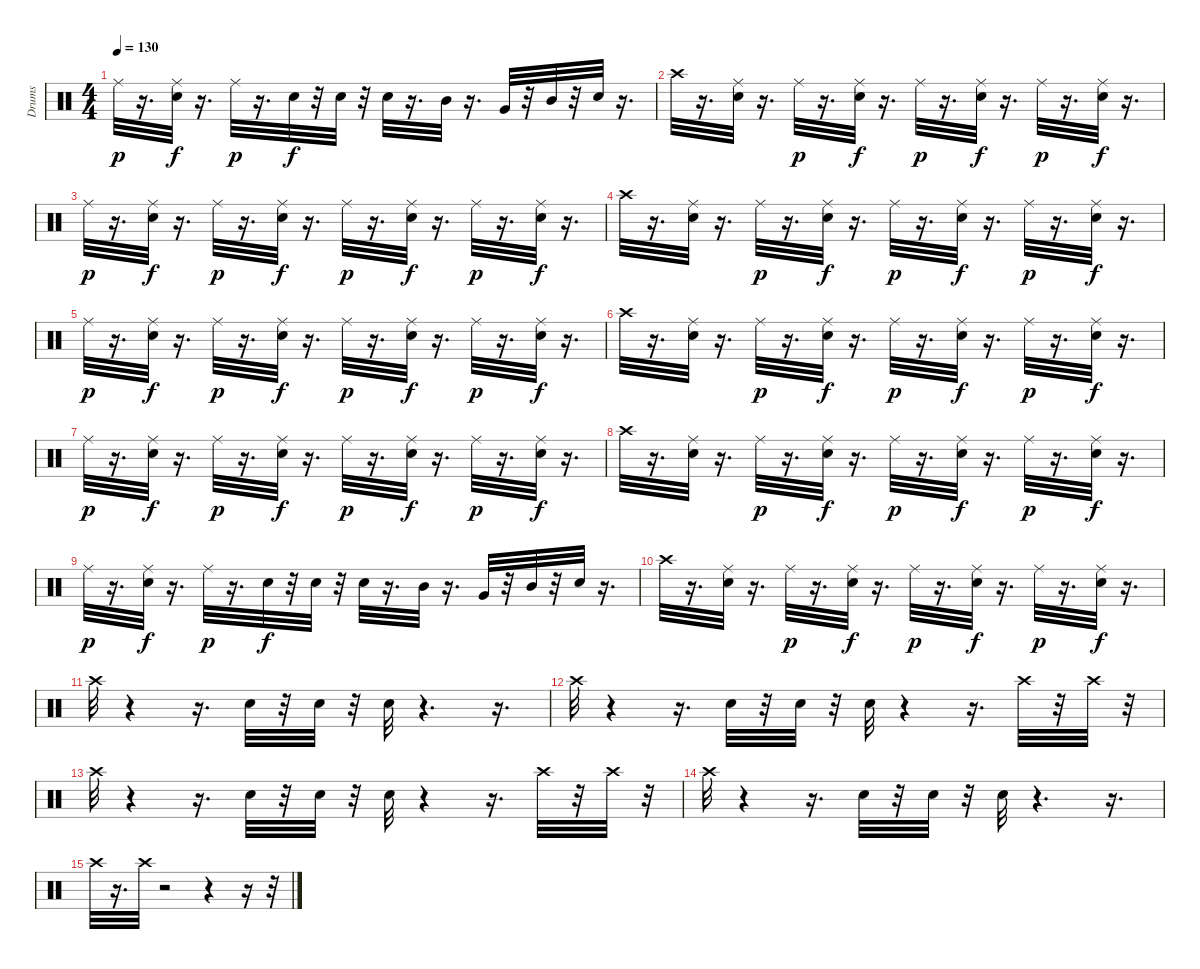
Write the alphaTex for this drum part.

\track ("Drums" "Drums") {instrument percussion}
\staff {score}
\articulation defaults
\ts (4 4)
\tempo 130
\clef neutral
\ks c "Ride (middle)".32{dy p}
r.16{d} ("Snare (hit) 2" "Ride (middle)").32{dy f} r.16{d} "Ride (middle)".32{dy p} r.16{d} "Snare (hit) 2".32{dy f} r.32 "Snare (hit) 2".32 r.32 "Snare (hit) 2".32 r.16{d} "Mid Tom (hit)".32 r.16{d} "Very Low Tom (hit)".32 r.32 "Mid Tom (hit)".32 r.32 "Snare (hit)".32 r.16{d} |
"Crash high (hit)".32 r.16{d} ("Snare (hit) 2" "Ride (middle)").32 r.16{d} "Ride (middle)".32{dy p} r.16{d} ("Snare (hit) 2" "Ride (middle)").32{dy f} r.16{d} "Ride (middle)".32{dy p} r.16{d} ("Snare (hit) 2" "Ride (middle)").32{dy f} r.16{d} "Ride (middle)".32{dy p} r.16{d} ("Snare (hit) 2" "Ride (middle)").32{dy f} r.16{d} |
"Ride (middle)".32{dy p} r.16{d} ("Snare (hit) 2" "Ride (middle)").32{dy f} r.16{d} "Ride (middle)".32{dy p} r.16{d} ("Snare (hit) 2" "Ride (middle)").32{dy f} r.16{d} "Ride (middle)".32{dy p} r.16{d} ("Snare (hit) 2" "Ride (middle)").32{dy f} r.16{d} "Ride (middle)".32{dy p} r.16{d} ("Snare (hit) 2" "Ride (middle)").32{dy f} r.16{d} |
"Crash high (hit)".32 r.16{d} ("Snare (hit) 2" "Ride (middle)").32 r.16{d} "Ride (middle)".32{dy p} r.16{d} ("Snare (hit) 2" "Ride (middle)").32{dy f} r.16{d} "Ride (middle)".32{dy p} r.16{d} ("Snare (hit) 2" "Ride (middle)").32{dy f} r.16{d} "Ride (middle)".32{dy p} r.16{d} ("Snare (hit) 2" "Ride (middle)").32{dy f} r.16{d} |
"Ride (middle)".32{dy p} r.16{d} ("Snare (hit) 2" "Ride (middle)").32{dy f} r.16{d} "Ride (middle)".32{dy p} r.16{d} ("Snare (hit) 2" "Ride (middle)").32{dy f} r.16{d} "Ride (middle)".32{dy p} r.16{d} ("Snare (hit) 2" "Ride (middle)").32{dy f} r.16{d} "Ride (middle)".32{dy p} r.16{d} ("Snare (hit) 2" "Ride (middle)").32{dy f} r.16{d} |
"Crash high (hit)".32 r.16{d} ("Snare (hit) 2" "Ride (middle)").32 r.16{d} "Ride (middle)".32{dy p} r.16{d} ("Snare (hit) 2" "Ride (middle)").32{dy f} r.16{d} "Ride (middle)".32{dy p} r.16{d} ("Snare (hit) 2" "Ride (middle)").32{dy f} r.16{d} "Ride (middle)".32{dy p} r.16{d} ("Snare (hit) 2" "Ride (middle)").32{dy f} r.16{d} |
"Ride (middle)".32{dy p} r.16{d} ("Snare (hit) 2" "Ride (middle)").32{dy f} r.16{d} "Ride (middle)".32{dy p} r.16{d} ("Snare (hit) 2" "Ride (middle)").32{dy f} r.16{d} "Ride (middle)".32{dy p} r.16{d} ("Snare (hit) 2" "Ride (middle)").32{dy f} r.16{d} "Ride (middle)".32{dy p} r.16{d} ("Snare (hit) 2" "Ride (middle)").32{dy f} r.16{d} |
"Crash high (hit)".32 r.16{d} ("Snare (hit) 2" "Ride (middle)").32 r.16{d} "Ride (middle)".32{dy p} r.16{d} ("Snare (hit) 2" "Ride (middle)").32{dy f} r.16{d} "Ride (middle)".32{dy p} r.16{d} ("Snare (hit) 2" "Ride (middle)").32{dy f} r.16{d} "Ride (middle)".32{dy p} r.16{d} ("Snare (hit) 2" "Ride (middle)").32{dy f} r.16{d} |
"Ride (middle)".32{dy p} r.16{d} ("Snare (hit) 2" "Ride (middle)").32{dy f} r.16{d} "Ride (middle)".32{dy p} r.16{d} "Snare (hit) 2".32{dy f} r.32 "Snare (hit) 2".32 r.32 "Snare (hit) 2".32 r.16{d} "Mid Tom (hit)".32 r.16{d} "Very Low Tom (hit)".32 r.32 "Mid Tom (hit)".32 r.32 "Snare (hit)".32 r.16{d} |
"Crash high (hit)".32 r.16{d} ("Snare (hit) 2" "Ride (middle)").32 r.16{d} "Ride (middle)".32{dy p} r.16{d} ("Snare (hit) 2" "Ride (middle)").32{dy f} r.16{d} "Ride (middle)".32{dy p} r.16{d} ("Snare (hit) 2" "Ride (middle)").32{dy f} r.16{d} "Ride (middle)".32{dy p} r.16{d} ("Snare (hit) 2" "Ride (middle)").32{dy f} r.16{d} |
"Crash high (hit)".32 r.4 r.16{d} "Snare (hit) 2".32 r.32 "Snare (hit) 2".32 r.32 "Snare (hit) 2".32 r.4{d} r.16{d} |
"Crash high (hit)".32 r.4 r.16{d} "Snare (hit) 2".32 r.32 "Snare (hit) 2".32 r.32 "Snare (hit) 2".32 r.4 r.16{d} "Crash high (hit)".32 r.32 "Crash high (hit)".32 r.32 |
"Crash high (hit)".32 r.4 r.16{d} "Snare (hit) 2".32 r.32 "Snare (hit) 2".32 r.32 "Snare (hit) 2".32 r.4 r.16{d} "Crash high (hit)".32 r.32 "Crash high (hit)".32 r.32 |
"Crash high (hit)".32 r.4 r.16{d} "Snare (hit) 2".32 r.32 "Snare (hit) 2".32 r.32 "Snare (hit) 2".32 r.4{d} r.16{d} |
"Crash high (hit)".32 r.16{d} "Crash high (hit)".32 r.2 r.4 r.16 r.32
